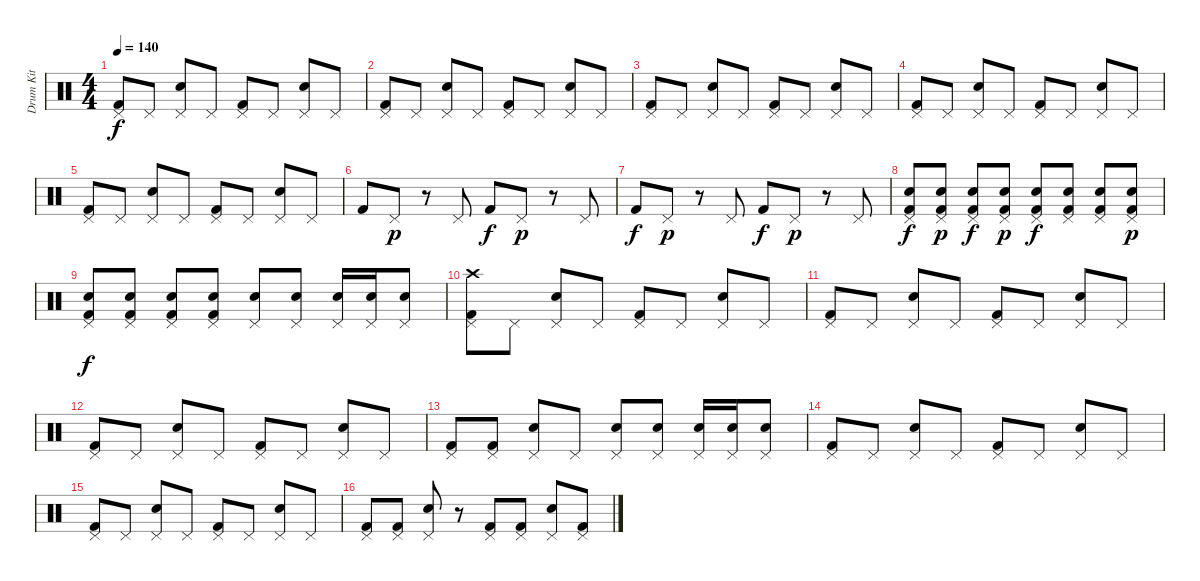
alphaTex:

\track ("Drum Kit" "Drum Kit") {instrument percussion}
\staff {score}
\articulation defaults
\ts (4 4)
\tempo 140
\clef neutral
\ks c
("Pedal Hi-Hat (hit)" "Kick (hit) 2").8{dy f} "Pedal Hi-Hat (hit)".8 ("Pedal Hi-Hat (hit)" "Electric Snare (hit)").8 "Pedal Hi-Hat (hit)".8 ("Pedal Hi-Hat (hit)" "Kick (hit) 2").8 "Pedal Hi-Hat (hit)".8 ("Pedal Hi-Hat (hit)" "Electric Snare (hit)").8 "Pedal Hi-Hat (hit)".8 |
("Pedal Hi-Hat (hit)" "Kick (hit) 2").8 "Pedal Hi-Hat (hit)".8 ("Pedal Hi-Hat (hit)" "Electric Snare (hit)").8 "Pedal Hi-Hat (hit)".8 ("Pedal Hi-Hat (hit)" "Kick (hit) 2").8 "Pedal Hi-Hat (hit)".8 ("Pedal Hi-Hat (hit)" "Electric Snare (hit)").8 "Pedal Hi-Hat (hit)".8 |
("Pedal Hi-Hat (hit)" "Kick (hit) 2").8 "Pedal Hi-Hat (hit)".8 ("Pedal Hi-Hat (hit)" "Electric Snare (hit)").8 "Pedal Hi-Hat (hit)".8 ("Pedal Hi-Hat (hit)" "Kick (hit) 2").8 "Pedal Hi-Hat (hit)".8 ("Pedal Hi-Hat (hit)" "Electric Snare (hit)").8 "Pedal Hi-Hat (hit)".8 |
("Pedal Hi-Hat (hit)" "Kick (hit) 2").8 "Pedal Hi-Hat (hit)".8 ("Pedal Hi-Hat (hit)" "Electric Snare (hit)").8 "Pedal Hi-Hat (hit)".8 ("Pedal Hi-Hat (hit)" "Kick (hit) 2").8 "Pedal Hi-Hat (hit)".8 ("Pedal Hi-Hat (hit)" "Electric Snare (hit)").8 "Pedal Hi-Hat (hit)".8 |
("Pedal Hi-Hat (hit)" "Kick (hit) 2").8 "Pedal Hi-Hat (hit)".8 ("Pedal Hi-Hat (hit)" "Electric Snare (hit)").8 "Pedal Hi-Hat (hit)".8 ("Pedal Hi-Hat (hit)" "Kick (hit) 2").8 "Pedal Hi-Hat (hit)".8 ("Pedal Hi-Hat (hit)" "Electric Snare (hit)").8 "Pedal Hi-Hat (hit)".8 |
"Kick (hit) 2".8 "Pedal Hi-Hat (hit)".8{dy p} r.8 "Pedal Hi-Hat (hit)".8 "Kick (hit) 2".8{dy f} "Pedal Hi-Hat (hit)".8{dy p} r.8 "Pedal Hi-Hat (hit)".8 |
"Kick (hit) 2".8{dy f} "Pedal Hi-Hat (hit)".8{dy p} r.8 "Pedal Hi-Hat (hit)".8 "Kick (hit) 2".8{dy f} "Pedal Hi-Hat (hit)".8{dy p} r.8 "Pedal Hi-Hat (hit)".8 |
("Pedal Hi-Hat (hit)" "Electric Snare (hit)" "Kick (hit) 2").8{dy f} ("Pedal Hi-Hat (hit)" "Electric Snare (hit)" "Kick (hit) 2").8{dy p} ("Pedal Hi-Hat (hit)" "Electric Snare (hit)" "Kick (hit) 2").8{dy f} ("Pedal Hi-Hat (hit)" "Electric Snare (hit)" "Kick (hit) 2").8{dy p} ("Pedal Hi-Hat (hit)" "Electric Snare (hit)" "Kick (hit) 2").8{dy f} ("Pedal Hi-Hat (hit)" "Electric Snare (hit)" "Kick (hit) 2").8 ("Pedal Hi-Hat (hit)" "Electric Snare (hit)" "Kick (hit) 2").8 ("Pedal Hi-Hat (hit)" "Electric Snare (hit)" "Kick (hit) 2").8{dy p} |
("Pedal Hi-Hat (hit)" "Electric Snare (hit)" "Kick (hit) 2").8{dy f} ("Pedal Hi-Hat (hit)" "Electric Snare (hit)" "Kick (hit) 2").8 ("Pedal Hi-Hat (hit)" "Electric Snare (hit)" "Kick (hit) 2").8 ("Pedal Hi-Hat (hit)" "Electric Snare (hit)" "Kick (hit) 2").8 ("Pedal Hi-Hat (hit)" "Electric Snare (hit)").8 ("Pedal Hi-Hat (hit)" "Electric Snare (hit)").8 ("Pedal Hi-Hat (hit)" "Electric Snare (hit)").16 ("Pedal Hi-Hat (hit)" "Electric Snare (hit)").16 ("Pedal Hi-Hat (hit)" "Electric Snare (hit)").8 |
("Crash high (hit)" "Pedal Hi-Hat (hit)" "Kick (hit) 2").8 "Pedal Hi-Hat (hit)".8 ("Pedal Hi-Hat (hit)" "Electric Snare (hit)").8 "Pedal Hi-Hat (hit)".8 ("Pedal Hi-Hat (hit)" "Kick (hit) 2").8 "Pedal Hi-Hat (hit)".8 ("Pedal Hi-Hat (hit)" "Electric Snare (hit)").8 "Pedal Hi-Hat (hit)".8 |
("Pedal Hi-Hat (hit)" "Kick (hit) 2").8 "Pedal Hi-Hat (hit)".8 ("Pedal Hi-Hat (hit)" "Electric Snare (hit)").8 "Pedal Hi-Hat (hit)".8 ("Pedal Hi-Hat (hit)" "Kick (hit) 2").8 "Pedal Hi-Hat (hit)".8 ("Pedal Hi-Hat (hit)" "Electric Snare (hit)").8 "Pedal Hi-Hat (hit)".8 |
("Pedal Hi-Hat (hit)" "Kick (hit) 2").8 "Pedal Hi-Hat (hit)".8 ("Pedal Hi-Hat (hit)" "Electric Snare (hit)").8 "Pedal Hi-Hat (hit)".8 ("Pedal Hi-Hat (hit)" "Kick (hit) 2").8 "Pedal Hi-Hat (hit)".8 ("Pedal Hi-Hat (hit)" "Electric Snare (hit)").8 "Pedal Hi-Hat (hit)".8 |
("Pedal Hi-Hat (hit)" "Kick (hit) 2").8 ("Pedal Hi-Hat (hit)" "Kick (hit) 2").8 ("Pedal Hi-Hat (hit)" "Electric Snare (hit)").8 "Pedal Hi-Hat (hit)".8 ("Pedal Hi-Hat (hit)" "Electric Snare (hit)").8 ("Pedal Hi-Hat (hit)" "Electric Snare (hit)").8 ("Pedal Hi-Hat (hit)" "Electric Snare (hit)").16 ("Pedal Hi-Hat (hit)" "Electric Snare (hit)").16 ("Pedal Hi-Hat (hit)" "Electric Snare (hit)").8 |
("Pedal Hi-Hat (hit)" "Kick (hit) 2").8 "Pedal Hi-Hat (hit)".8 ("Pedal Hi-Hat (hit)" "Electric Snare (hit)").8 "Pedal Hi-Hat (hit)".8 ("Pedal Hi-Hat (hit)" "Kick (hit) 2").8 "Pedal Hi-Hat (hit)".8 ("Pedal Hi-Hat (hit)" "Electric Snare (hit)").8 "Pedal Hi-Hat (hit)".8 |
("Pedal Hi-Hat (hit)" "Kick (hit) 2").8 "Pedal Hi-Hat (hit)".8 ("Pedal Hi-Hat (hit)" "Electric Snare (hit)").8 "Pedal Hi-Hat (hit)".8 ("Pedal Hi-Hat (hit)" "Kick (hit) 2").8 "Pedal Hi-Hat (hit)".8 ("Pedal Hi-Hat (hit)" "Electric Snare (hit)").8 "Pedal Hi-Hat (hit)".8 |
("Pedal Hi-Hat (hit)" "Kick (hit) 2").8 ("Pedal Hi-Hat (hit)" "Kick (hit) 2").8 ("Pedal Hi-Hat (hit)" "Electric Snare (hit)").8 r.8 ("Pedal Hi-Hat (hit)" "Kick (hit) 2").8 ("Pedal Hi-Hat (hit)" "Kick (hit) 2").8 ("Pedal Hi-Hat (hit)" "Electric Snare (hit)").8 ("Pedal Hi-Hat (hit)" "Kick (hit) 2").8
